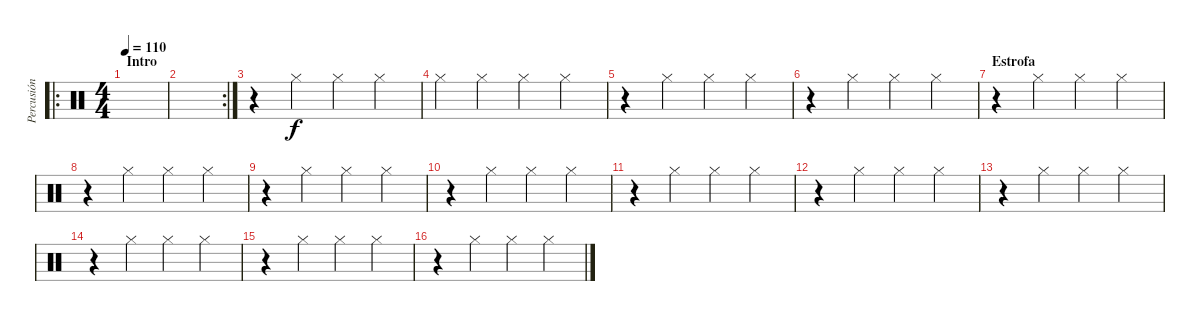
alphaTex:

\track ("Percusión" "Percusión") {instrument percussion}
\staff {score}
\articulation defaults
\ro
\ts (4 4)
\section ("" "Intro")
\tempo 110
\clef neutral
\ks c
|
\rc 2
|
r.4 "Hi-Hat (closed)".4 "Hi-Hat (closed)".4 "Hi-Hat (closed)".4 |
"Hi-Hat (closed)".4 "Hi-Hat (closed)".4 "Hi-Hat (closed)".4 "Hi-Hat (closed)".4 |
r.4 "Hi-Hat (closed)".4 "Hi-Hat (closed)".4 "Hi-Hat (closed)".4 |
r.4 "Hi-Hat (closed)".4 "Hi-Hat (closed)".4 "Hi-Hat (closed)".4 |
\section ("" "Estrofa")
r.4 "Hi-Hat (closed)".4 "Hi-Hat (closed)".4 "Hi-Hat (closed)".4 |
r.4 "Hi-Hat (closed)".4 "Hi-Hat (closed)".4 "Hi-Hat (closed)".4 |
r.4 "Hi-Hat (closed)".4 "Hi-Hat (closed)".4 "Hi-Hat (closed)".4 |
r.4 "Hi-Hat (closed)".4 "Hi-Hat (closed)".4 "Hi-Hat (closed)".4 |
r.4 "Hi-Hat (closed)".4 "Hi-Hat (closed)".4 "Hi-Hat (closed)".4 |
r.4 "Hi-Hat (closed)".4 "Hi-Hat (closed)".4 "Hi-Hat (closed)".4 |
r.4 "Hi-Hat (closed)".4 "Hi-Hat (closed)".4 "Hi-Hat (closed)".4 |
r.4 "Hi-Hat (closed)".4 "Hi-Hat (closed)".4 "Hi-Hat (closed)".4 |
r.4 "Hi-Hat (closed)".4 "Hi-Hat (closed)".4 "Hi-Hat (closed)".4 |
r.4 "Hi-Hat (closed)".4 "Hi-Hat (closed)".4 "Hi-Hat (closed)".4
